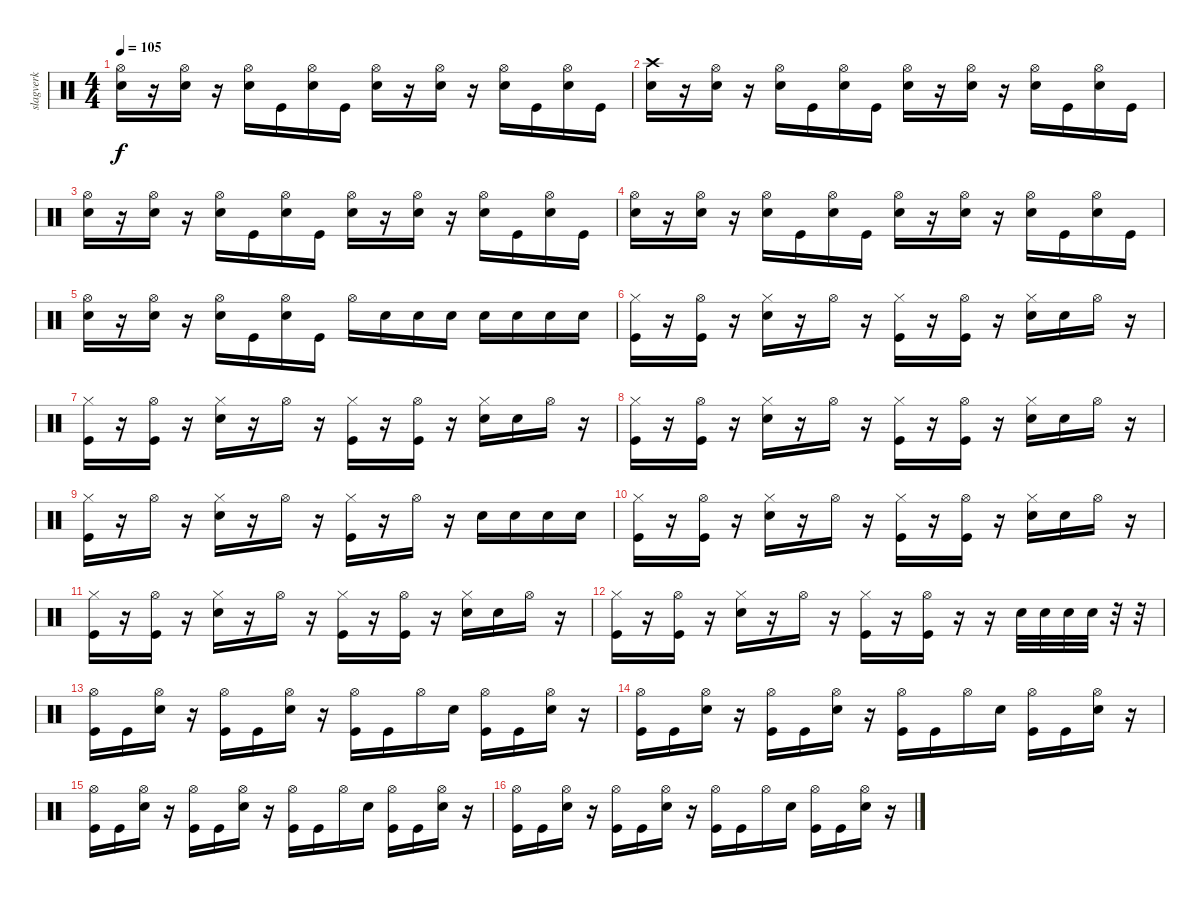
\track ("slagverk" "slagverk") {instrument percussion}
\staff {score}
\articulation defaults
\ts (4 4)
\tempo 105
\clef neutral
\ks c
("Hi-Hat (open)" "Snare (hit) 2").16{dy f} r.16 ("Hi-Hat (open)" "Snare (hit) 2").16 r.16 ("Hi-Hat (open)" "Snare (hit) 2").16 "Kick (hit)".16 ("Hi-Hat (open)" "Snare (hit) 2").16 "Kick (hit)".16 ("Hi-Hat (open)" "Snare (hit) 2").16 r.16 ("Hi-Hat (open)" "Snare (hit) 2").16 r.16 ("Hi-Hat (open)" "Snare (hit) 2").16 "Kick (hit)".16 ("Hi-Hat (open)" "Snare (hit) 2").16 "Kick (hit)".16 |
("Crash high (hit)" "Snare (hit) 2").16 r.16 ("Hi-Hat (open)" "Snare (hit) 2").16 r.16 ("Hi-Hat (open)" "Snare (hit) 2").16 "Kick (hit)".16 ("Hi-Hat (open)" "Snare (hit) 2").16 "Kick (hit)".16 ("Hi-Hat (open)" "Snare (hit) 2").16 r.16 ("Hi-Hat (open)" "Snare (hit) 2").16 r.16 ("Hi-Hat (open)" "Snare (hit) 2").16 "Kick (hit)".16 ("Hi-Hat (open)" "Snare (hit) 2").16 "Kick (hit)".16 |
("Hi-Hat (open)" "Snare (hit) 2").16 r.16 ("Hi-Hat (open)" "Snare (hit) 2").16 r.16 ("Hi-Hat (open)" "Snare (hit) 2").16 "Kick (hit)".16 ("Hi-Hat (open)" "Snare (hit) 2").16 "Kick (hit)".16 ("Hi-Hat (open)" "Snare (hit) 2").16 r.16 ("Hi-Hat (open)" "Snare (hit) 2").16 r.16 ("Hi-Hat (open)" "Snare (hit) 2").16 "Kick (hit)".16 ("Hi-Hat (open)" "Snare (hit) 2").16 "Kick (hit)".16 |
("Hi-Hat (open)" "Snare (hit) 2").16 r.16 ("Hi-Hat (open)" "Snare (hit) 2").16 r.16 ("Hi-Hat (open)" "Snare (hit) 2").16 "Kick (hit)".16 ("Hi-Hat (open)" "Snare (hit) 2").16 "Kick (hit)".16 ("Hi-Hat (open)" "Snare (hit) 2").16 r.16 ("Hi-Hat (open)" "Snare (hit) 2").16 r.16 ("Hi-Hat (open)" "Snare (hit) 2").16 "Kick (hit)".16 ("Hi-Hat (open)" "Snare (hit) 2").16 "Kick (hit)".16 |
("Hi-Hat (open)" "Snare (hit) 2").16 r.16 ("Hi-Hat (open)" "Snare (hit) 2").16 r.16 ("Hi-Hat (open)" "Snare (hit) 2").16 "Kick (hit)".16 ("Hi-Hat (open)" "Snare (hit) 2").16 "Kick (hit)".16 "Hi-Hat (open)".16 "Snare (hit) 2".16 "Snare (hit) 2".16 "Snare (hit) 2".16 "Snare (hit) 2".16 "Snare (hit) 2".16 "Snare (hit) 2".16 "Snare (hit) 2".16 |
("Hi-Hat (closed)" "Kick (hit)").16 r.16 ("Hi-Hat (open)" "Kick (hit)").16 r.16 ("Hi-Hat (closed)" "Snare (hit) 2").16 r.16 "Hi-Hat (open)".16 r.16 ("Hi-Hat (closed)" "Kick (hit)").16 r.16 ("Hi-Hat (open)" "Kick (hit)").16 r.16 ("Hi-Hat (closed)" "Snare (hit) 2").16 "Snare (hit) 2".16 "Hi-Hat (open)".16 r.16 |
("Hi-Hat (closed)" "Kick (hit)").16 r.16 ("Hi-Hat (open)" "Kick (hit)").16 r.16 ("Hi-Hat (closed)" "Snare (hit) 2").16 r.16 "Hi-Hat (open)".16 r.16 ("Hi-Hat (closed)" "Kick (hit)").16 r.16 ("Hi-Hat (open)" "Kick (hit)").16 r.16 ("Hi-Hat (closed)" "Snare (hit) 2").16 "Snare (hit) 2".16 "Hi-Hat (open)".16 r.16 |
("Hi-Hat (closed)" "Kick (hit)").16 r.16 ("Hi-Hat (open)" "Kick (hit)").16 r.16 ("Hi-Hat (closed)" "Snare (hit) 2").16 r.16 "Hi-Hat (open)".16 r.16 ("Hi-Hat (closed)" "Kick (hit)").16 r.16 ("Hi-Hat (open)" "Kick (hit)").16 r.16 ("Hi-Hat (closed)" "Snare (hit) 2").16 "Snare (hit) 2".16 "Hi-Hat (open)".16 r.16 |
("Hi-Hat (closed)" "Kick (hit)").16 r.16 "Hi-Hat (open)".16 r.16 ("Hi-Hat (closed)" "Snare (hit) 2").16 r.16 "Hi-Hat (open)".16 r.16 ("Hi-Hat (closed)" "Kick (hit)").16 r.16 "Hi-Hat (open)".16 r.16 "Snare (hit) 2".16 "Snare (hit) 2".16 "Snare (hit) 2".16 "Snare (hit) 2".16 |
("Hi-Hat (closed)" "Kick (hit)").16 r.16 ("Hi-Hat (open)" "Kick (hit)").16 r.16 ("Hi-Hat (closed)" "Snare (hit) 2").16 r.16 "Hi-Hat (open)".16 r.16 ("Hi-Hat (closed)" "Kick (hit)").16 r.16 ("Hi-Hat (open)" "Kick (hit)").16 r.16 ("Hi-Hat (closed)" "Snare (hit) 2").16 "Snare (hit) 2".16 "Hi-Hat (open)".16 r.16 |
("Hi-Hat (closed)" "Kick (hit)").16 r.16 ("Hi-Hat (open)" "Kick (hit)").16 r.16 ("Hi-Hat (closed)" "Snare (hit) 2").16 r.16 "Hi-Hat (open)".16 r.16 ("Hi-Hat (closed)" "Kick (hit)").16 r.16 ("Hi-Hat (open)" "Kick (hit)").16 r.16 ("Hi-Hat (closed)" "Snare (hit) 2").16 "Snare (hit) 2".16 "Hi-Hat (open)".16 r.16 |
("Hi-Hat (closed)" "Kick (hit)").16 r.16 ("Hi-Hat (open)" "Kick (hit)").16 r.16 ("Hi-Hat (closed)" "Snare (hit) 2").16 r.16 "Hi-Hat (open)".16 r.16 ("Hi-Hat (closed)" "Kick (hit)").16 r.16 ("Hi-Hat (open)" "Kick (hit)").16 r.16 r.16 "Snare (hit) 2".32 "Snare (hit) 2".32 "Snare (hit) 2".32 "Snare (hit) 2".32 r.32 r.32 |
("Hi-Hat (open)" "Kick (hit)").16 "Kick (hit)".16 ("Hi-Hat (open)" "Snare (hit) 2").16 r.16 ("Hi-Hat (open)" "Kick (hit)").16 "Kick (hit)".16 ("Hi-Hat (open)" "Snare (hit) 2").16 r.16 ("Hi-Hat (open)" "Kick (hit)").16 "Kick (hit)".16 "Hi-Hat (open)".16 "Snare (hit) 2".16 ("Hi-Hat (open)" "Kick (hit)").16 "Kick (hit)".16 ("Hi-Hat (open)" "Snare (hit) 2").16 r.16 |
("Hi-Hat (open)" "Kick (hit)").16 "Kick (hit)".16 ("Hi-Hat (open)" "Snare (hit) 2").16 r.16 ("Hi-Hat (open)" "Kick (hit)").16 "Kick (hit)".16 ("Hi-Hat (open)" "Snare (hit) 2").16 r.16 ("Hi-Hat (open)" "Kick (hit)").16 "Kick (hit)".16 "Hi-Hat (open)".16 "Snare (hit) 2".16 ("Hi-Hat (open)" "Kick (hit)").16 "Kick (hit)".16 ("Hi-Hat (open)" "Snare (hit) 2").16 r.16 |
("Hi-Hat (open)" "Kick (hit)").16 "Kick (hit)".16 ("Hi-Hat (open)" "Snare (hit) 2").16 r.16 ("Hi-Hat (open)" "Kick (hit)").16 "Kick (hit)".16 ("Hi-Hat (open)" "Snare (hit) 2").16 r.16 ("Hi-Hat (open)" "Kick (hit)").16 "Kick (hit)".16 "Hi-Hat (open)".16 "Snare (hit) 2".16 ("Hi-Hat (open)" "Kick (hit)").16 "Kick (hit)".16 ("Hi-Hat (open)" "Snare (hit) 2").16 r.16 |
("Hi-Hat (open)" "Kick (hit)").16 "Kick (hit)".16 ("Hi-Hat (open)" "Snare (hit) 2").16 r.16 ("Hi-Hat (open)" "Kick (hit)").16 "Kick (hit)".16 ("Hi-Hat (open)" "Snare (hit) 2").16 r.16 ("Hi-Hat (open)" "Kick (hit)").16 "Kick (hit)".16 "Hi-Hat (open)".16 "Snare (hit) 2".16 ("Hi-Hat (open)" "Kick (hit)").16 "Kick (hit)".16 ("Hi-Hat (open)" "Snare (hit) 2").16 r.16
